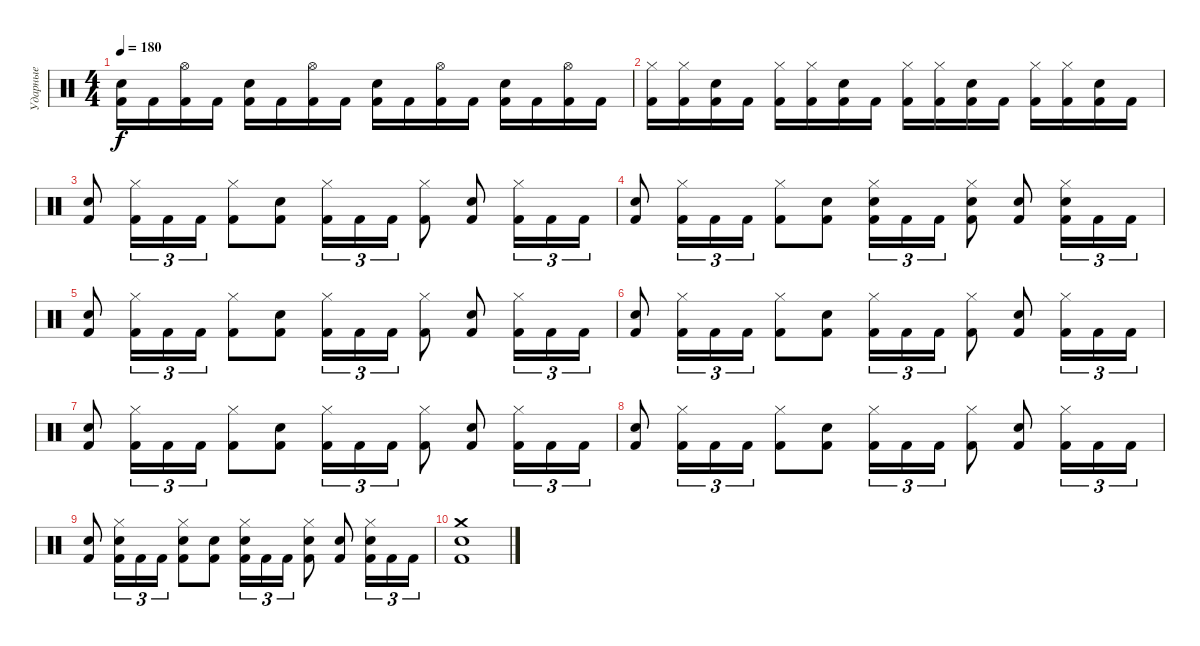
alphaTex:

\track ("Ударные" "Ударные") {instrument percussion}
\staff {score}
\articulation defaults
\ts (4 4)
\tempo 180
\clef neutral
\ks c
("Kick (hit) 2" "Snare (hit) 2").16{dy f} "Kick (hit) 2".16 ("Kick (hit) 2" "Hi-Hat (open)").16 "Kick (hit) 2".16 ("Kick (hit) 2" "Snare (hit) 2").16 "Kick (hit) 2".16 ("Kick (hit) 2" "Hi-Hat (open)").16 "Kick (hit) 2".16 ("Kick (hit) 2" "Snare (hit) 2").16 "Kick (hit) 2".16 ("Kick (hit) 2" "Hi-Hat (open)").16 "Kick (hit) 2".16 ("Kick (hit) 2" "Snare (hit) 2").16 "Kick (hit) 2".16 ("Kick (hit) 2" "Hi-Hat (open)").16 "Kick (hit) 2".16 |
("Kick (hit) 2" "Hi-Hat (closed)").16 ("Kick (hit) 2" "Hi-Hat (closed)").16 ("Kick (hit) 2" "Snare (hit) 2").16 "Kick (hit) 2".16 ("Kick (hit) 2" "Hi-Hat (closed)").16 ("Kick (hit) 2" "Hi-Hat (closed)").16 ("Kick (hit) 2" "Snare (hit) 2").16 "Kick (hit) 2".16 ("Kick (hit) 2" "Hi-Hat (closed)").16 ("Kick (hit) 2" "Hi-Hat (closed)").16 ("Kick (hit) 2" "Snare (hit) 2").16 "Kick (hit) 2".16 ("Kick (hit) 2" "Hi-Hat (closed)").16 ("Kick (hit) 2" "Hi-Hat (closed)").16 ("Kick (hit) 2" "Snare (hit) 2").16 "Kick (hit) 2".16 |
("Kick (hit) 2" "Snare (hit) 2").8 ("Kick (hit) 2" "Hi-Hat (closed)").16{tu (3 2)} "Kick (hit) 2".16{tu (3 2)} "Kick (hit) 2".16{tu (3 2)} ("Kick (hit) 2" "Hi-Hat (closed)").8 ("Kick (hit) 2" "Snare (hit) 2").8 ("Kick (hit) 2" "Hi-Hat (closed)").16{tu (3 2)} "Kick (hit) 2".16{tu (3 2)} "Kick (hit) 2".16{tu (3 2)} ("Kick (hit) 2" "Hi-Hat (closed)").8 ("Kick (hit) 2" "Snare (hit) 2").8 ("Kick (hit) 2" "Hi-Hat (closed)").16{tu (3 2)} "Kick (hit) 2".16{tu (3 2)} "Kick (hit) 2".16{tu (3 2)} |
("Kick (hit) 2" "Snare (hit) 2").8 ("Kick (hit) 2" "Hi-Hat (closed)").16{tu (3 2)} "Kick (hit) 2".16{tu (3 2)} "Kick (hit) 2".16{tu (3 2)} ("Kick (hit) 2" "Hi-Hat (closed)").8 ("Kick (hit) 2" "Snare (hit) 2").8 ("Kick (hit) 2" "Snare (hit) 2" "Hi-Hat (closed)").16{tu (3 2)} "Kick (hit) 2".16{tu (3 2)} "Kick (hit) 2".16{tu (3 2)} ("Kick (hit) 2" "Snare (hit) 2" "Hi-Hat (closed)").8 ("Kick (hit) 2" "Snare (hit) 2").8 ("Kick (hit) 2" "Snare (hit) 2" "Hi-Hat (closed)").16{tu (3 2)} "Kick (hit) 2".16{tu (3 2)} "Kick (hit) 2".16{tu (3 2)} |
("Kick (hit) 2" "Snare (hit) 2").8 ("Kick (hit) 2" "Hi-Hat (closed)").16{tu (3 2)} "Kick (hit) 2".16{tu (3 2)} "Kick (hit) 2".16{tu (3 2)} ("Kick (hit) 2" "Hi-Hat (closed)").8 ("Kick (hit) 2" "Snare (hit) 2").8 ("Kick (hit) 2" "Hi-Hat (closed)").16{tu (3 2)} "Kick (hit) 2".16{tu (3 2)} "Kick (hit) 2".16{tu (3 2)} ("Kick (hit) 2" "Hi-Hat (closed)").8 ("Kick (hit) 2" "Snare (hit) 2").8 ("Kick (hit) 2" "Hi-Hat (closed)").16{tu (3 2)} "Kick (hit) 2".16{tu (3 2)} "Kick (hit) 2".16{tu (3 2)} |
("Kick (hit) 2" "Snare (hit) 2").8 ("Kick (hit) 2" "Hi-Hat (closed)").16{tu (3 2)} "Kick (hit) 2".16{tu (3 2)} "Kick (hit) 2".16{tu (3 2)} ("Kick (hit) 2" "Hi-Hat (closed)").8 ("Kick (hit) 2" "Snare (hit) 2").8 ("Kick (hit) 2" "Hi-Hat (closed)").16{tu (3 2)} "Kick (hit) 2".16{tu (3 2)} "Kick (hit) 2".16{tu (3 2)} ("Kick (hit) 2" "Hi-Hat (closed)").8 ("Kick (hit) 2" "Snare (hit) 2").8 ("Kick (hit) 2" "Hi-Hat (closed)").16{tu (3 2)} "Kick (hit) 2".16{tu (3 2)} "Kick (hit) 2".16{tu (3 2)} |
("Kick (hit) 2" "Snare (hit) 2").8 ("Kick (hit) 2" "Hi-Hat (closed)").16{tu (3 2)} "Kick (hit) 2".16{tu (3 2)} "Kick (hit) 2".16{tu (3 2)} ("Kick (hit) 2" "Hi-Hat (closed)").8 ("Kick (hit) 2" "Snare (hit) 2").8 ("Kick (hit) 2" "Hi-Hat (closed)").16{tu (3 2)} "Kick (hit) 2".16{tu (3 2)} "Kick (hit) 2".16{tu (3 2)} ("Kick (hit) 2" "Hi-Hat (closed)").8 ("Kick (hit) 2" "Snare (hit) 2").8 ("Kick (hit) 2" "Hi-Hat (closed)").16{tu (3 2)} "Kick (hit) 2".16{tu (3 2)} "Kick (hit) 2".16{tu (3 2)} |
("Kick (hit) 2" "Snare (hit) 2").8 ("Kick (hit) 2" "Hi-Hat (closed)").16{tu (3 2)} "Kick (hit) 2".16{tu (3 2)} "Kick (hit) 2".16{tu (3 2)} ("Kick (hit) 2" "Hi-Hat (closed)").8 ("Kick (hit) 2" "Snare (hit) 2").8 ("Kick (hit) 2" "Hi-Hat (closed)").16{tu (3 2)} "Kick (hit) 2".16{tu (3 2)} "Kick (hit) 2".16{tu (3 2)} ("Kick (hit) 2" "Hi-Hat (closed)").8 ("Kick (hit) 2" "Snare (hit) 2").8 ("Kick (hit) 2" "Hi-Hat (closed)").16{tu (3 2)} "Kick (hit) 2".16{tu (3 2)} "Kick (hit) 2".16{tu (3 2)} |
("Kick (hit) 2" "Snare (hit) 2").8 ("Kick (hit) 2" "Snare (hit) 2" "Hi-Hat (closed)").16{tu (3 2)} "Kick (hit) 2".16{tu (3 2)} "Kick (hit) 2".16{tu (3 2)} ("Kick (hit) 2" "Snare (hit) 2" "Hi-Hat (closed)").8 ("Kick (hit) 2" "Snare (hit) 2").8 ("Kick (hit) 2" "Snare (hit) 2" "Hi-Hat (closed)").16{tu (3 2)} "Kick (hit) 2".16{tu (3 2)} "Kick (hit) 2".16{tu (3 2)} ("Kick (hit) 2" "Snare (hit) 2" "Hi-Hat (closed)").8 ("Kick (hit) 2" "Snare (hit) 2").8 ("Kick (hit) 2" "Snare (hit) 2" "Hi-Hat (closed)").16{tu (3 2)} "Kick (hit) 2".16{tu (3 2)} "Kick (hit) 2".16{tu (3 2)} |
("Snare (hit) 2" "Kick (hit) 2" "Crash medium (hit)").1
